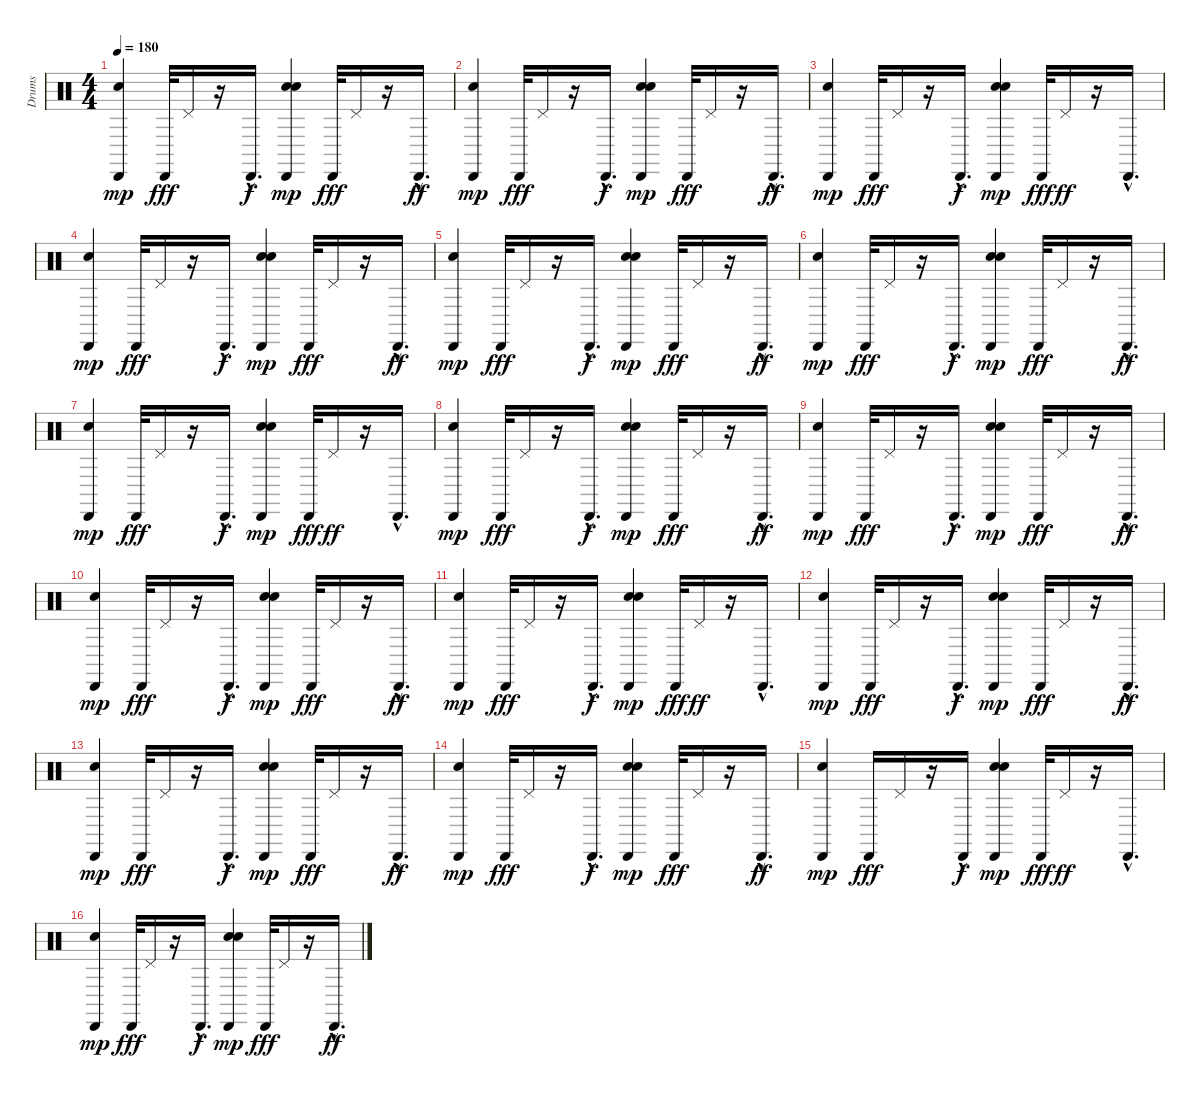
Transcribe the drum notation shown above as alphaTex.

\track ("Drums" "Drums") {instrument percussion}
\staff {score}
\articulation defaults
\ts (4 4)
\tempo 180
\clef neutral
\ks c
("Snare (hit) 2" "Cabasa (hit)").4{dy mp} "Cabasa (hit)".32{dy fff} "Pedal Hi-Hat (hit)".16 r.16 "Cabasa (hit)"{hac}.16{d dy f} ("Snare (hit) 2" "Snare (hit) 2" "Cabasa (hit)").4{dy mp} "Cabasa (hit)".32{dy fff} "Pedal Hi-Hat (hit)".16 r.16 "Cabasa (hit)"{hac}.16{d dy ff} |
("Snare (hit) 2" "Cabasa (hit)").4{dy mp} "Cabasa (hit)".32{dy fff} "Pedal Hi-Hat (hit)".16 r.16 "Cabasa (hit)"{hac}.16{d dy f} ("Snare (hit) 2" "Snare (hit) 2" "Cabasa (hit)").4{dy mp} "Cabasa (hit)".32{dy fff} "Pedal Hi-Hat (hit)".16 r.16 "Cabasa (hit)"{hac}.16{d dy ff} |
("Snare (hit) 2" "Cabasa (hit)").4{dy mp} "Cabasa (hit)".32{dy fff} "Pedal Hi-Hat (hit)".16 r.16 "Cabasa (hit)"{hac}.16{d dy f} ("Snare (hit) 2" "Snare (hit) 2" "Cabasa (hit)").4{dy mp} "Cabasa (hit)".32{dy fff} "Pedal Hi-Hat (hit)".16{dy ff} r.16 "Cabasa (hit)"{hac}.16{d} |
("Snare (hit) 2" "Cabasa (hit)").4{dy mp} "Cabasa (hit)".32{dy fff} "Pedal Hi-Hat (hit)".16 r.16 "Cabasa (hit)"{hac}.16{d dy f} ("Snare (hit) 2" "Snare (hit) 2" "Cabasa (hit)").4{dy mp} "Cabasa (hit)".32{dy fff} "Pedal Hi-Hat (hit)".16 r.16 "Cabasa (hit)"{hac}.16{d dy ff} |
("Snare (hit) 2" "Cabasa (hit)").4{dy mp} "Cabasa (hit)".32{dy fff} "Pedal Hi-Hat (hit)".16 r.16 "Cabasa (hit)"{hac}.16{d dy f} ("Snare (hit) 2" "Snare (hit) 2" "Cabasa (hit)").4{dy mp} "Cabasa (hit)".32{dy fff} "Pedal Hi-Hat (hit)".16 r.16 "Cabasa (hit)"{hac}.16{d dy ff} |
("Snare (hit) 2" "Cabasa (hit)").4{dy mp} "Cabasa (hit)".32{dy fff} "Pedal Hi-Hat (hit)".16 r.16 "Cabasa (hit)"{hac}.16{d dy f} ("Snare (hit) 2" "Snare (hit) 2" "Cabasa (hit)").4{dy mp} "Cabasa (hit)".32{dy fff} "Pedal Hi-Hat (hit)".16 r.16 "Cabasa (hit)"{hac}.16{d dy ff} |
("Snare (hit) 2" "Cabasa (hit)").4{dy mp} "Cabasa (hit)".32{dy fff} "Pedal Hi-Hat (hit)".16 r.16 "Cabasa (hit)"{hac}.16{d dy f} ("Snare (hit) 2" "Snare (hit) 2" "Cabasa (hit)").4{dy mp} "Cabasa (hit)".32{dy fff} "Pedal Hi-Hat (hit)".16{dy ff} r.16 "Cabasa (hit)"{hac}.16{d} |
("Snare (hit) 2" "Cabasa (hit)").4{dy mp} "Cabasa (hit)".32{dy fff} "Pedal Hi-Hat (hit)".16 r.16 "Cabasa (hit)"{hac}.16{d dy f} ("Snare (hit) 2" "Snare (hit) 2" "Cabasa (hit)").4{dy mp} "Cabasa (hit)".32{dy fff} "Pedal Hi-Hat (hit)".16 r.16 "Cabasa (hit)"{hac}.16{d dy ff} |
("Snare (hit) 2" "Cabasa (hit)").4{dy mp} "Cabasa (hit)".32{dy fff} "Pedal Hi-Hat (hit)".16 r.16 "Cabasa (hit)"{hac}.16{d dy f} ("Snare (hit) 2" "Snare (hit) 2" "Cabasa (hit)").4{dy mp} "Cabasa (hit)".32{dy fff} "Pedal Hi-Hat (hit)".16 r.16 "Cabasa (hit)"{hac}.16{d dy ff} |
("Snare (hit) 2" "Cabasa (hit)").4{dy mp} "Cabasa (hit)".32{dy fff} "Pedal Hi-Hat (hit)".16 r.16 "Cabasa (hit)"{hac}.16{d dy f} ("Snare (hit) 2" "Snare (hit) 2" "Cabasa (hit)").4{dy mp} "Cabasa (hit)".32{dy fff} "Pedal Hi-Hat (hit)".16 r.16 "Cabasa (hit)"{hac}.16{d dy ff} |
("Snare (hit) 2" "Cabasa (hit)").4{dy mp} "Cabasa (hit)".32{dy fff} "Pedal Hi-Hat (hit)".16 r.16 "Cabasa (hit)"{hac}.16{d dy f} ("Snare (hit) 2" "Snare (hit) 2" "Cabasa (hit)").4{dy mp} "Cabasa (hit)".32{dy fff} "Pedal Hi-Hat (hit)".16{dy ff} r.16 "Cabasa (hit)"{hac}.16{d} |
("Snare (hit) 2" "Cabasa (hit)").4{dy mp} "Cabasa (hit)".32{dy fff} "Pedal Hi-Hat (hit)".16 r.16 "Cabasa (hit)"{hac}.16{d dy f} ("Snare (hit) 2" "Snare (hit) 2" "Cabasa (hit)").4{dy mp} "Cabasa (hit)".32{dy fff} "Pedal Hi-Hat (hit)".16 r.16 "Cabasa (hit)"{hac}.16{d dy ff} |
("Snare (hit) 2" "Cabasa (hit)").4{dy mp} "Cabasa (hit)".32{dy fff} "Pedal Hi-Hat (hit)".16 r.16 "Cabasa (hit)"{hac}.16{d dy f} ("Snare (hit) 2" "Snare (hit) 2" "Cabasa (hit)").4{dy mp} "Cabasa (hit)".32{dy fff} "Pedal Hi-Hat (hit)".16 r.16 "Cabasa (hit)"{hac}.16{d dy ff} |
("Snare (hit) 2" "Cabasa (hit)").4{dy mp} "Cabasa (hit)".32{dy fff} "Pedal Hi-Hat (hit)".16 r.16 "Cabasa (hit)"{hac}.16{d dy f} ("Snare (hit) 2" "Snare (hit) 2" "Cabasa (hit)").4{dy mp} "Cabasa (hit)".32{dy fff} "Pedal Hi-Hat (hit)".16 r.16 "Cabasa (hit)"{hac}.16{d dy ff} |
("Snare (hit) 2" "Cabasa (hit)").4{dy mp} "Cabasa (hit)".16{dy fff} "Pedal Hi-Hat (hit)".16 r.16 "Cabasa (hit)"{hac}.16{dy f} ("Snare (hit) 2" "Snare (hit) 2" "Cabasa (hit)").4{dy mp} "Cabasa (hit)".32{dy fff} "Pedal Hi-Hat (hit)".16{dy ff} r.16 "Cabasa (hit)"{hac}.16{d} |
("Snare (hit) 2" "Cabasa (hit)").4{dy mp} "Cabasa (hit)".32{dy fff} "Pedal Hi-Hat (hit)".16 r.16 "Cabasa (hit)"{hac}.16{d dy f} ("Snare (hit) 2" "Snare (hit) 2" "Cabasa (hit)").4{dy mp} "Cabasa (hit)".32{dy fff} "Pedal Hi-Hat (hit)".16 r.16 "Cabasa (hit)"{hac}.16{d dy ff}
